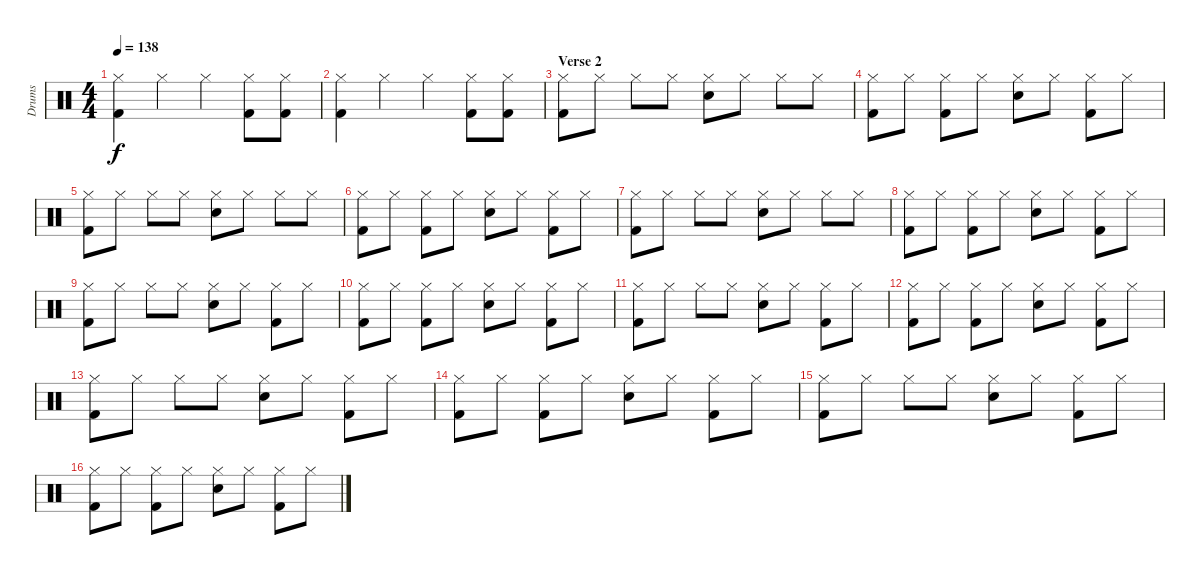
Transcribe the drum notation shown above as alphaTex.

\track ("Drums" "Drums") {instrument percussion}
\staff {score}
\articulation defaults
\ts (4 4)
\tempo 138
\clef neutral
\ks c
("Hi-Hat (closed)" "Kick (hit) 2").4{dy f} "Hi-Hat (closed)".4 "Hi-Hat (closed)".4 ("Hi-Hat (closed)" "Kick (hit) 2").8 ("Hi-Hat (closed)" "Kick (hit) 2").8 |
("Hi-Hat (closed)" "Kick (hit) 2").4 "Hi-Hat (closed)".4 "Hi-Hat (closed)".4 ("Hi-Hat (closed)" "Kick (hit) 2").8 ("Hi-Hat (closed)" "Kick (hit) 2").8 |
\section ("" "Verse 2")
("Hi-Hat (closed)" "Kick (hit) 2").8 "Hi-Hat (closed)".8 "Hi-Hat (closed)".8 "Hi-Hat (closed)".8 ("Hi-Hat (closed)" "Electric Snare (hit)").8 "Hi-Hat (closed)".8 "Hi-Hat (closed)".8 "Hi-Hat (closed)".8 |
("Hi-Hat (closed)" "Kick (hit) 2").8 "Hi-Hat (closed)".8 ("Hi-Hat (closed)" "Kick (hit) 2").8 "Hi-Hat (closed)".8 ("Hi-Hat (closed)" "Electric Snare (hit)").8 "Hi-Hat (closed)".8 ("Hi-Hat (closed)" "Kick (hit) 2").8 "Hi-Hat (closed)".8 |
("Hi-Hat (closed)" "Kick (hit) 2").8 "Hi-Hat (closed)".8 "Hi-Hat (closed)".8 "Hi-Hat (closed)".8 ("Hi-Hat (closed)" "Electric Snare (hit)").8 "Hi-Hat (closed)".8 "Hi-Hat (closed)".8 "Hi-Hat (closed)".8 |
("Hi-Hat (closed)" "Kick (hit) 2").8 "Hi-Hat (closed)".8 ("Hi-Hat (closed)" "Kick (hit) 2").8 "Hi-Hat (closed)".8 ("Hi-Hat (closed)" "Electric Snare (hit)").8 "Hi-Hat (closed)".8 ("Hi-Hat (closed)" "Kick (hit) 2").8 "Hi-Hat (closed)".8 |
("Hi-Hat (closed)" "Kick (hit) 2").8 "Hi-Hat (closed)".8 "Hi-Hat (closed)".8 "Hi-Hat (closed)".8 ("Hi-Hat (closed)" "Electric Snare (hit)").8 "Hi-Hat (closed)".8 "Hi-Hat (closed)".8 "Hi-Hat (closed)".8 |
("Hi-Hat (closed)" "Kick (hit) 2").8 "Hi-Hat (closed)".8 ("Hi-Hat (closed)" "Kick (hit) 2").8 "Hi-Hat (closed)".8 ("Hi-Hat (closed)" "Electric Snare (hit)").8 "Hi-Hat (closed)".8 ("Hi-Hat (closed)" "Kick (hit) 2").8 "Hi-Hat (closed)".8 |
("Hi-Hat (closed)" "Kick (hit) 2").8 "Hi-Hat (closed)".8 "Hi-Hat (closed)".8 "Hi-Hat (closed)".8 ("Hi-Hat (closed)" "Electric Snare (hit)").8 "Hi-Hat (closed)".8 ("Hi-Hat (closed)" "Kick (hit) 2").8 "Hi-Hat (closed)".8 |
("Hi-Hat (closed)" "Kick (hit) 2").8 "Hi-Hat (closed)".8 ("Hi-Hat (closed)" "Kick (hit) 2").8 "Hi-Hat (closed)".8 ("Hi-Hat (closed)" "Electric Snare (hit)").8 "Hi-Hat (closed)".8 ("Hi-Hat (closed)" "Kick (hit) 2").8 "Hi-Hat (closed)".8 |
("Hi-Hat (closed)" "Kick (hit) 2").8 "Hi-Hat (closed)".8 "Hi-Hat (closed)".8 "Hi-Hat (closed)".8 ("Hi-Hat (closed)" "Electric Snare (hit)").8 "Hi-Hat (closed)".8 ("Hi-Hat (closed)" "Kick (hit) 2").8 "Hi-Hat (closed)".8 |
("Hi-Hat (closed)" "Kick (hit) 2").8 "Hi-Hat (closed)".8 ("Hi-Hat (closed)" "Kick (hit) 2").8 "Hi-Hat (closed)".8 ("Hi-Hat (closed)" "Electric Snare (hit)").8 "Hi-Hat (closed)".8 ("Hi-Hat (closed)" "Kick (hit) 2").8 "Hi-Hat (closed)".8 |
("Hi-Hat (closed)" "Kick (hit) 2").8 "Hi-Hat (closed)".8 "Hi-Hat (closed)".8 "Hi-Hat (closed)".8 ("Hi-Hat (closed)" "Electric Snare (hit)").8 "Hi-Hat (closed)".8 ("Hi-Hat (closed)" "Kick (hit) 2").8 "Hi-Hat (closed)".8 |
("Hi-Hat (closed)" "Kick (hit) 2").8 "Hi-Hat (closed)".8 ("Hi-Hat (closed)" "Kick (hit) 2").8 "Hi-Hat (closed)".8 ("Hi-Hat (closed)" "Electric Snare (hit)").8 "Hi-Hat (closed)".8 ("Hi-Hat (closed)" "Kick (hit) 2").8 "Hi-Hat (closed)".8 |
("Hi-Hat (closed)" "Kick (hit) 2").8 "Hi-Hat (closed)".8 "Hi-Hat (closed)".8 "Hi-Hat (closed)".8 ("Hi-Hat (closed)" "Electric Snare (hit)").8 "Hi-Hat (closed)".8 ("Hi-Hat (closed)" "Kick (hit) 2").8 "Hi-Hat (closed)".8 |
("Hi-Hat (closed)" "Kick (hit) 2").8 "Hi-Hat (closed)".8 ("Hi-Hat (closed)" "Kick (hit) 2").8 "Hi-Hat (closed)".8 ("Hi-Hat (closed)" "Electric Snare (hit)").8 "Hi-Hat (closed)".8 ("Hi-Hat (closed)" "Kick (hit) 2").8 "Hi-Hat (closed)".8
